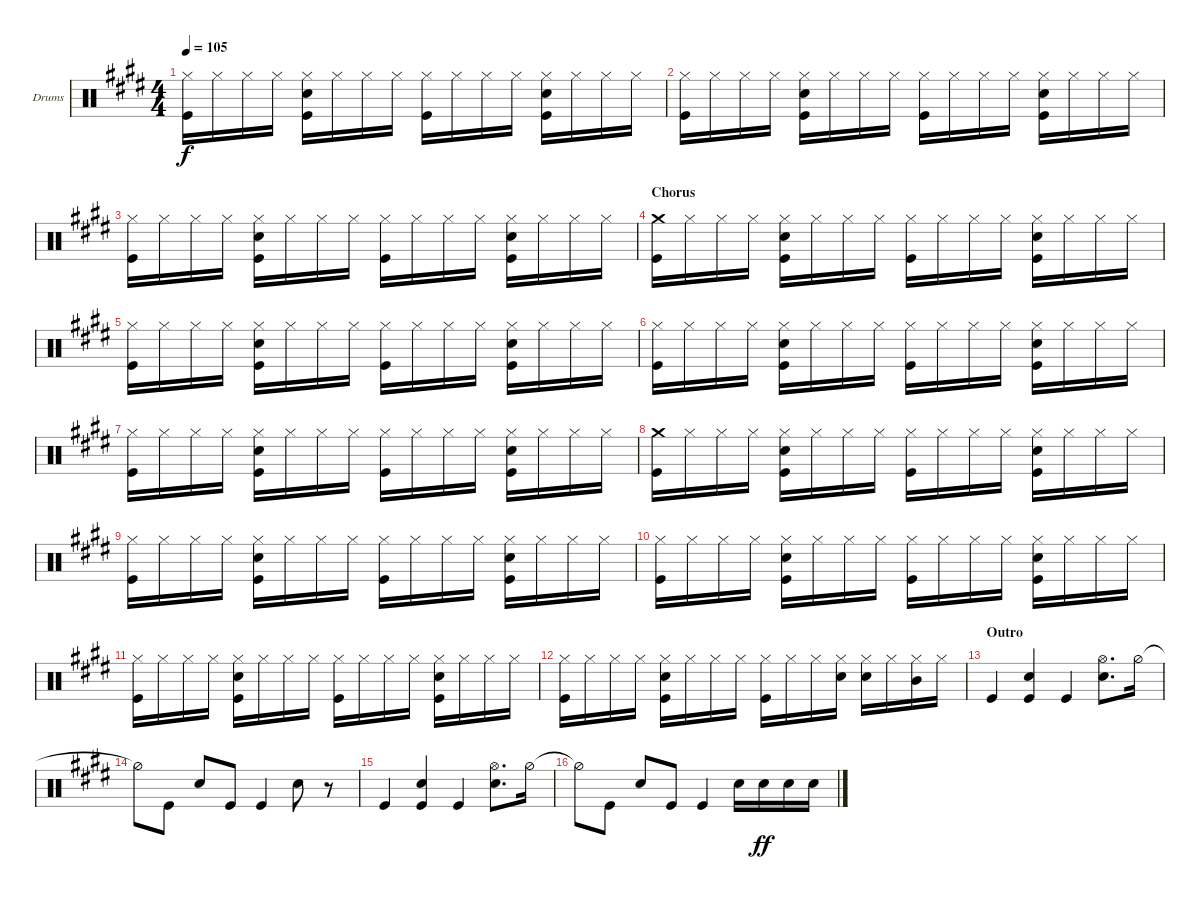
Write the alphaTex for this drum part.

\defaultSystemsLayout 4
\bracketExtendMode groupsimilarinstruments
\firstSystemTrackNameOrientation horizontal
\otherSystemsTrackNameOrientation horizontal
\track ("Drums" "Drums") {instrument percussion}
\staff {score}
\articulation defaults
\ts (4 4)
\tempo 105
\clef neutral
\ks e
("Kick (hit)" "Hi-Hat (closed)").16{dy f} "Hi-Hat (closed)".16 "Hi-Hat (closed)".16 "Hi-Hat (closed)".16 ("Kick (hit)" "Snare (hit) 2" "Hi-Hat (closed)").16 "Hi-Hat (closed)".16 "Hi-Hat (closed)".16 "Hi-Hat (closed)".16 ("Kick (hit)" "Hi-Hat (closed)").16 "Hi-Hat (closed)".16 "Hi-Hat (closed)".16 "Hi-Hat (closed)".16 ("Kick (hit)" "Snare (hit) 2" "Hi-Hat (closed)").16 "Hi-Hat (closed)".16 "Hi-Hat (closed)".16 "Hi-Hat (closed)".16 |
("Kick (hit)" "Hi-Hat (closed)").16 "Hi-Hat (closed)".16 "Hi-Hat (closed)".16 "Hi-Hat (closed)".16 ("Kick (hit)" "Snare (hit) 2" "Hi-Hat (closed)").16 "Hi-Hat (closed)".16 "Hi-Hat (closed)".16 "Hi-Hat (closed)".16 ("Kick (hit)" "Hi-Hat (closed)").16 "Hi-Hat (closed)".16 "Hi-Hat (closed)".16 "Hi-Hat (closed)".16 ("Kick (hit)" "Snare (hit) 2" "Hi-Hat (closed)").16 "Hi-Hat (closed)".16 "Hi-Hat (closed)".16 "Hi-Hat (closed)".16 |
("Kick (hit)" "Hi-Hat (closed)").16 "Hi-Hat (closed)".16 "Hi-Hat (closed)".16 "Hi-Hat (closed)".16 ("Kick (hit)" "Snare (hit) 2" "Hi-Hat (closed)").16 "Hi-Hat (closed)".16 "Hi-Hat (closed)".16 "Hi-Hat (closed)".16 ("Kick (hit)" "Hi-Hat (closed)").16 "Hi-Hat (closed)".16 "Hi-Hat (closed)".16 "Hi-Hat (closed)".16 ("Kick (hit)" "Snare (hit) 2" "Hi-Hat (closed)").16 "Hi-Hat (closed)".16 "Hi-Hat (closed)".16 "Hi-Hat (closed)".16 |
\section ("" "Chorus")
("Kick (hit)" "Crash medium (hit)").16 "Hi-Hat (closed)".16 "Hi-Hat (closed)".16 "Hi-Hat (closed)".16 ("Kick (hit)" "Snare (hit) 2" "Hi-Hat (closed)").16 "Hi-Hat (closed)".16 "Hi-Hat (closed)".16 "Hi-Hat (closed)".16 ("Kick (hit)" "Hi-Hat (closed)").16 "Hi-Hat (closed)".16 "Hi-Hat (closed)".16 "Hi-Hat (closed)".16 ("Kick (hit)" "Snare (hit) 2" "Hi-Hat (closed)").16 "Hi-Hat (closed)".16 "Hi-Hat (closed)".16 "Hi-Hat (closed)".16 |
("Kick (hit)" "Hi-Hat (closed)").16 "Hi-Hat (closed)".16 "Hi-Hat (closed)".16 "Hi-Hat (closed)".16 ("Kick (hit)" "Snare (hit) 2" "Hi-Hat (closed)").16 "Hi-Hat (closed)".16 "Hi-Hat (closed)".16 "Hi-Hat (closed)".16 ("Kick (hit)" "Hi-Hat (closed)").16 "Hi-Hat (closed)".16 "Hi-Hat (closed)".16 "Hi-Hat (closed)".16 ("Kick (hit)" "Snare (hit) 2" "Hi-Hat (closed)").16 "Hi-Hat (closed)".16 "Hi-Hat (closed)".16 "Hi-Hat (closed)".16 |
("Kick (hit)" "Hi-Hat (closed)").16 "Hi-Hat (closed)".16 "Hi-Hat (closed)".16 "Hi-Hat (closed)".16 ("Kick (hit)" "Snare (hit) 2" "Hi-Hat (closed)").16 "Hi-Hat (closed)".16 "Hi-Hat (closed)".16 "Hi-Hat (closed)".16 ("Kick (hit)" "Hi-Hat (closed)").16 "Hi-Hat (closed)".16 "Hi-Hat (closed)".16 "Hi-Hat (closed)".16 ("Kick (hit)" "Snare (hit) 2" "Hi-Hat (closed)").16 "Hi-Hat (closed)".16 "Hi-Hat (closed)".16 "Hi-Hat (closed)".16 |
("Kick (hit)" "Hi-Hat (closed)").16 "Hi-Hat (closed)".16 "Hi-Hat (closed)".16 "Hi-Hat (closed)".16 ("Kick (hit)" "Snare (hit) 2" "Hi-Hat (closed)").16 "Hi-Hat (closed)".16 "Hi-Hat (closed)".16 "Hi-Hat (closed)".16 ("Kick (hit)" "Hi-Hat (closed)").16 "Hi-Hat (closed)".16 "Hi-Hat (closed)".16 "Hi-Hat (closed)".16 ("Kick (hit)" "Snare (hit) 2" "Hi-Hat (closed)").16 "Hi-Hat (closed)".16 "Hi-Hat (closed)".16 "Hi-Hat (closed)".16 |
("Kick (hit)" "Crash medium (hit)").16 "Hi-Hat (closed)".16 "Hi-Hat (closed)".16 "Hi-Hat (closed)".16 ("Kick (hit)" "Snare (hit) 2" "Hi-Hat (closed)").16 "Hi-Hat (closed)".16 "Hi-Hat (closed)".16 "Hi-Hat (closed)".16 ("Kick (hit)" "Hi-Hat (closed)").16 "Hi-Hat (closed)".16 "Hi-Hat (closed)".16 "Hi-Hat (closed)".16 ("Kick (hit)" "Snare (hit) 2" "Hi-Hat (closed)").16 "Hi-Hat (closed)".16 "Hi-Hat (closed)".16 "Hi-Hat (closed)".16 |
("Kick (hit)" "Hi-Hat (closed)").16 "Hi-Hat (closed)".16 "Hi-Hat (closed)".16 "Hi-Hat (closed)".16 ("Kick (hit)" "Snare (hit) 2" "Hi-Hat (closed)").16 "Hi-Hat (closed)".16 "Hi-Hat (closed)".16 "Hi-Hat (closed)".16 ("Kick (hit)" "Hi-Hat (closed)").16 "Hi-Hat (closed)".16 "Hi-Hat (closed)".16 "Hi-Hat (closed)".16 ("Kick (hit)" "Snare (hit) 2" "Hi-Hat (closed)").16 "Hi-Hat (closed)".16 "Hi-Hat (closed)".16 "Hi-Hat (closed)".16 |
("Kick (hit)" "Hi-Hat (closed)").16 "Hi-Hat (closed)".16 "Hi-Hat (closed)".16 "Hi-Hat (closed)".16 ("Kick (hit)" "Snare (hit) 2" "Hi-Hat (closed)").16 "Hi-Hat (closed)".16 "Hi-Hat (closed)".16 "Hi-Hat (closed)".16 ("Kick (hit)" "Hi-Hat (closed)").16 "Hi-Hat (closed)".16 "Hi-Hat (closed)".16 "Hi-Hat (closed)".16 ("Kick (hit)" "Snare (hit) 2" "Hi-Hat (closed)").16 "Hi-Hat (closed)".16 "Hi-Hat (closed)".16 "Hi-Hat (closed)".16 |
("Kick (hit)" "Hi-Hat (closed)").16 "Hi-Hat (closed)".16 "Hi-Hat (closed)".16 "Hi-Hat (closed)".16 ("Kick (hit)" "Snare (hit) 2" "Hi-Hat (closed)").16 "Hi-Hat (closed)".16 "Hi-Hat (closed)".16 "Hi-Hat (closed)".16 ("Kick (hit)" "Hi-Hat (closed)").16 "Hi-Hat (closed)".16 "Hi-Hat (closed)".16 "Hi-Hat (closed)".16 ("Kick (hit)" "Snare (hit) 2" "Hi-Hat (closed)").16 "Hi-Hat (closed)".16 "Hi-Hat (closed)".16 "Hi-Hat (closed)".16 |
("Kick (hit)" "Hi-Hat (closed)").16 "Hi-Hat (closed)".16 "Hi-Hat (closed)".16 "Hi-Hat (closed)".16 ("Kick (hit)" "Snare (hit) 2" "Hi-Hat (closed)").16 "Hi-Hat (closed)".16 "Hi-Hat (closed)".16 "Hi-Hat (closed)".16 ("Kick (hit)" "Hi-Hat (closed)").16 "Hi-Hat (closed)".16 "Hi-Hat (closed)".16 ("Hi-Hat (closed)" "Snare (hit) 2").16 ("Snare (hit) 2" "Hi-Hat (closed)").16 "Hi-Hat (closed)".16 ("Hi-Hat (closed)" "Mid Tom (hit)").16 "Hi-Hat (closed)".16 |
\section ("" "Outro")
"Kick (hit)".4 ("Snare (hit) 2" "Kick (hit)").4 "Kick (hit)".4 ("Snare (hit) 2" "Hi-Hat (open)").8{d} "Hi-Hat (half)".16 |
"Hi-Hat (half)"{t}.8 "Kick (hit)".8 "Snare (hit) 2".8 "Kick (hit)".8 "Kick (hit)".4 "Snare (hit) 2".8 r.8 |
"Kick (hit)".4 ("Snare (hit) 2" "Kick (hit)").4 "Kick (hit)".4 ("Snare (hit) 2" "Hi-Hat (open)").8{d} "Hi-Hat (half)".16 |
"Hi-Hat (half)"{t}.8 "Kick (hit)".8 "Snare (hit) 2".8 "Kick (hit)".8 "Kick (hit)".4 "Snare (hit) 2".16 "Snare (hit) 2".16{dy ff} "Snare (hit) 2".16 "Snare (hit) 2".16
